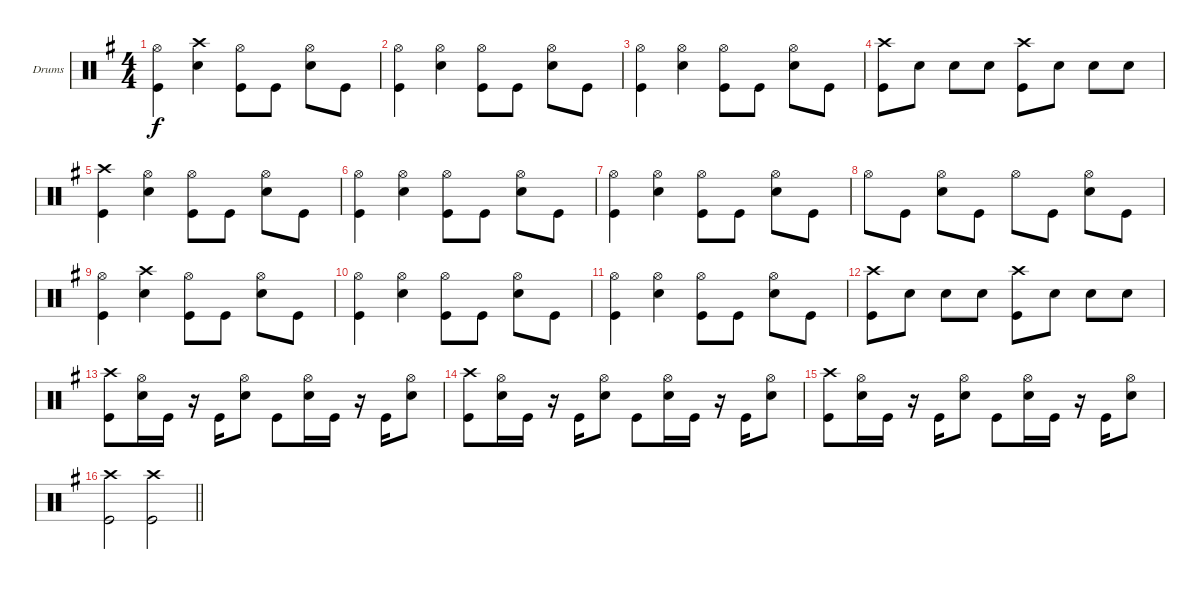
\defaultSystemsLayout 4
\bracketExtendMode groupsimilarinstruments
\firstSystemTrackNameOrientation horizontal
\otherSystemsTrackNameOrientation horizontal
\track ("Drums" "Drums") {instrument percussion}
\staff {score}
\articulation defaults
\ts (4 4)
\tempo (188 hide)
\clef neutral
\ks g
("Kick (hit)" "Hi-Hat (open)").4{dy f} ("Snare (hit) 2" "Crash high (hit)").4 ("Kick (hit)" "Hi-Hat (open)").8 "Kick (hit)".8 ("Snare (hit) 2" "Hi-Hat (open)").8 "Kick (hit)".8 |
("Kick (hit)" "Hi-Hat (open)").4 ("Snare (hit) 2" "Hi-Hat (open)").4 ("Kick (hit)" "Hi-Hat (open)").8 "Kick (hit)".8 ("Snare (hit) 2" "Hi-Hat (open)").8 "Kick (hit)".8 |
("Kick (hit)" "Hi-Hat (open)").4 ("Snare (hit) 2" "Hi-Hat (open)").4 ("Kick (hit)" "Hi-Hat (open)").8 "Kick (hit)".8 ("Snare (hit) 2" "Hi-Hat (open)").8 "Kick (hit)".8 |
("Kick (hit)" "Crash high (hit)").8 "Snare (hit) 2".8 "Snare (hit) 2".8 "Snare (hit) 2".8 ("Kick (hit)" "Crash high (hit)").8 "Snare (hit) 2".8 "Snare (hit) 2".8 "Snare (hit) 2".8 |
("Kick (hit)" "Crash high (hit)").4 ("Snare (hit) 2" "Hi-Hat (open)").4 ("Kick (hit)" "Hi-Hat (open)").8 "Kick (hit)".8 ("Snare (hit) 2" "Hi-Hat (open)").8 "Kick (hit)".8 |
("Kick (hit)" "Hi-Hat (open)").4 ("Snare (hit) 2" "Hi-Hat (open)").4 ("Kick (hit)" "Hi-Hat (open)").8 "Kick (hit)".8 ("Snare (hit) 2" "Hi-Hat (open)").8 "Kick (hit)".8 |
("Kick (hit)" "Hi-Hat (open)").4 ("Snare (hit) 2" "Hi-Hat (open)").4 ("Kick (hit)" "Hi-Hat (open)").8 "Kick (hit)".8 ("Snare (hit) 2" "Hi-Hat (open)").8 "Kick (hit)".8 |
"Hi-Hat (open)".8 "Kick (hit)".8 ("Snare (hit) 2" "Hi-Hat (open)").8 "Kick (hit)".8 "Hi-Hat (open)".8 "Kick (hit)".8 ("Snare (hit) 2" "Hi-Hat (open)").8 "Kick (hit)".8 |
("Kick (hit)" "Hi-Hat (open)").4 ("Snare (hit) 2" "Crash high (hit)").4 ("Kick (hit)" "Hi-Hat (open)").8 "Kick (hit)".8 ("Snare (hit) 2" "Hi-Hat (open)").8 "Kick (hit)".8 |
("Kick (hit)" "Hi-Hat (open)").4 ("Snare (hit) 2" "Hi-Hat (open)").4 ("Kick (hit)" "Hi-Hat (open)").8 "Kick (hit)".8 ("Snare (hit) 2" "Hi-Hat (open)").8 "Kick (hit)".8 |
("Kick (hit)" "Hi-Hat (open)").4 ("Snare (hit) 2" "Hi-Hat (open)").4 ("Kick (hit)" "Hi-Hat (open)").8 "Kick (hit)".8 ("Snare (hit) 2" "Hi-Hat (open)").8 "Kick (hit)".8 |
("Kick (hit)" "Crash high (hit)").8 "Snare (hit) 2".8 "Snare (hit) 2".8 "Snare (hit) 2".8 ("Kick (hit)" "Crash high (hit)").8 "Snare (hit) 2".8 "Snare (hit) 2".8 "Snare (hit) 2".8 |
("Kick (hit)" "Crash high (hit)").8 ("Snare (hit) 2" "Hi-Hat (open)").16 "Kick (hit)".16 r.16 "Kick (hit)".16 ("Snare (hit) 2" "Hi-Hat (open)").8 "Kick (hit)".8 ("Snare (hit) 2" "Hi-Hat (open)").16 "Kick (hit)".16 r.16 "Kick (hit)".16 ("Snare (hit) 2" "Hi-Hat (open)").8 |
("Kick (hit)" "Crash high (hit)").8 ("Snare (hit) 2" "Hi-Hat (open)").16 "Kick (hit)".16 r.16 "Kick (hit)".16 ("Snare (hit) 2" "Hi-Hat (open)").8 "Kick (hit)".8 ("Snare (hit) 2" "Hi-Hat (open)").16 "Kick (hit)".16 r.16 "Kick (hit)".16 ("Snare (hit) 2" "Hi-Hat (open)").8 |
("Kick (hit)" "Crash high (hit)").8 ("Snare (hit) 2" "Hi-Hat (open)").16 "Kick (hit)".16 r.16 "Kick (hit)".16 ("Snare (hit) 2" "Hi-Hat (open)").8 "Kick (hit)".8 ("Snare (hit) 2" "Hi-Hat (open)").16 "Kick (hit)".16 r.16 "Kick (hit)".16 ("Snare (hit) 2" "Hi-Hat (open)").8 |
\barLineRight lightlight
("Kick (hit)" "Crash high (hit)").2 ("Kick (hit)" "Crash high (hit)").2
